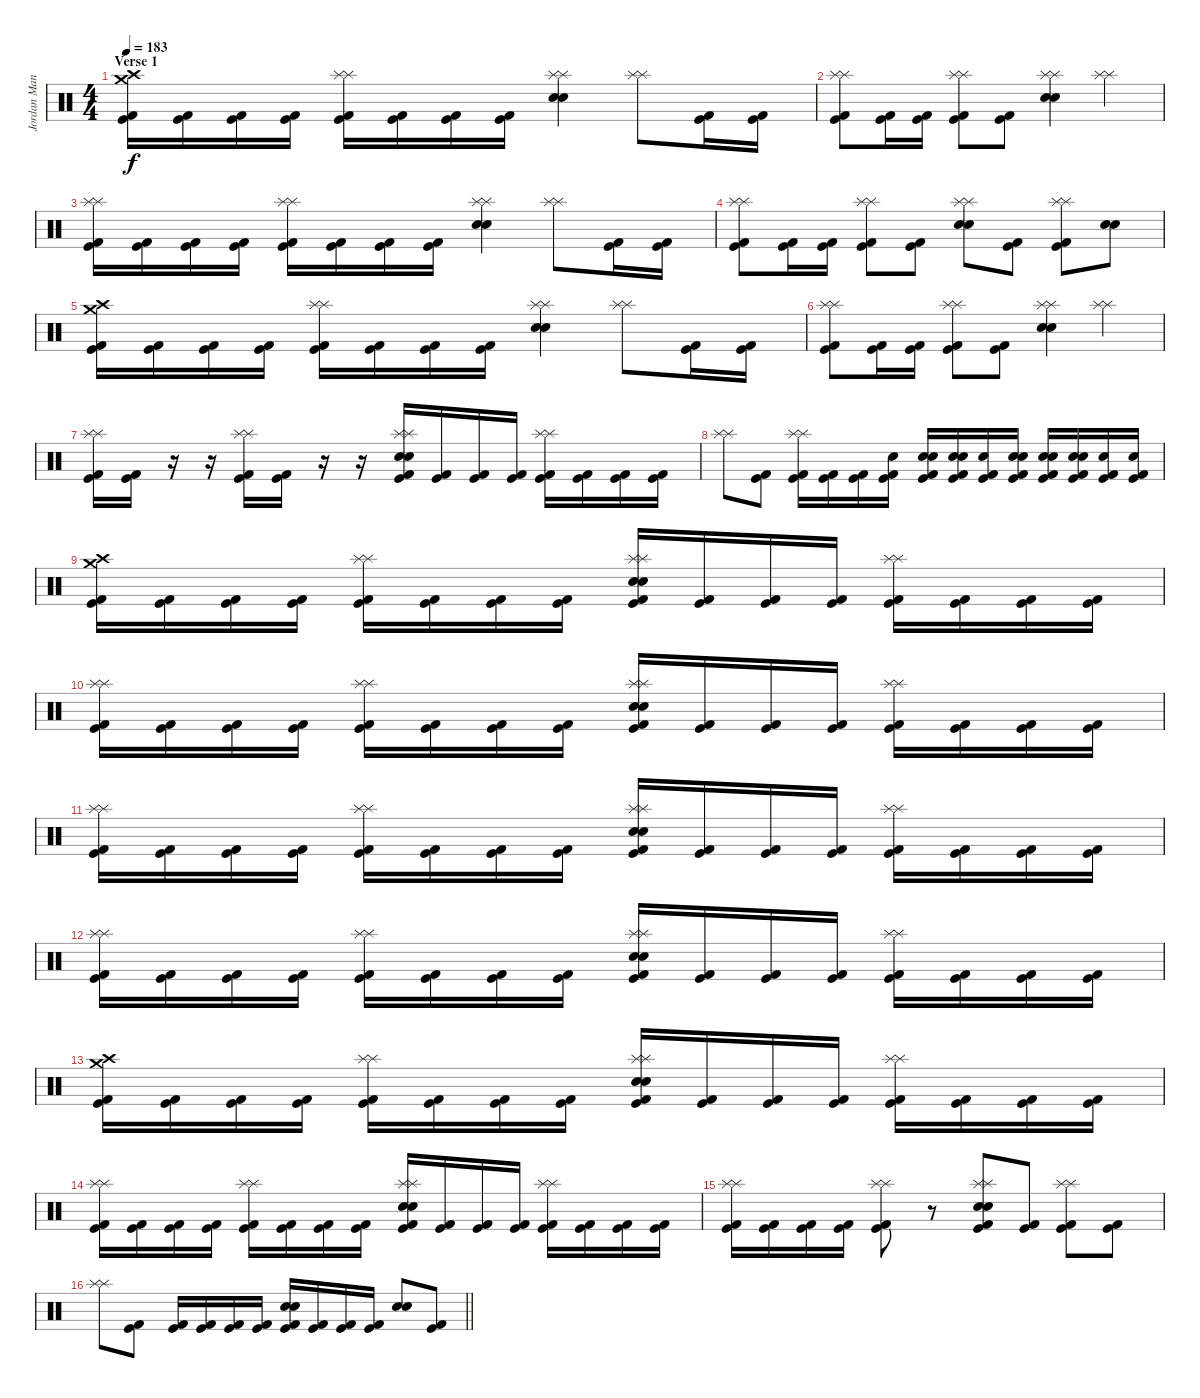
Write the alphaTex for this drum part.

\track ("Jordan Mancino" "Jordan Man") {instrument percussion}
\staff {score}
\articulation defaults
\ts (4 4)
\section ("" "Verse 1")
\tempo 183
\clef neutral
\ks c
("Crash medium (hit)" "Crash high (hit)" "Kick (hit)" "Kick (hit) 2").16{dy f} ("Kick (hit)" "Kick (hit) 2").16 ("Kick (hit)" "Kick (hit) 2").16 ("Kick (hit)" "Kick (hit) 2").16 ("Splash (hit)" "Splash (hit)" "Kick (hit)" "Kick (hit) 2").16 ("Kick (hit)" "Kick (hit) 2").16 ("Kick (hit)" "Kick (hit) 2").16 ("Kick (hit)" "Kick (hit) 2").16 ("Splash (hit)" "Splash (hit)" "Electric Snare (hit)" "Snare (hit) 2").4 ("Splash (hit)" "Splash (hit)").8 ("Kick (hit)" "Kick (hit) 2").16 ("Kick (hit)" "Kick (hit) 2").16 |
("Splash (hit)" "Splash (hit)" "Kick (hit)" "Kick (hit) 2").8 ("Kick (hit)" "Kick (hit) 2").16 ("Kick (hit)" "Kick (hit) 2").16 ("Splash (hit)" "Splash (hit)" "Kick (hit)" "Kick (hit) 2").8 ("Kick (hit)" "Kick (hit) 2").8 ("Splash (hit)" "Splash (hit)" "Electric Snare (hit)" "Snare (hit) 2").4 ("Splash (hit)" "Splash (hit)").4 |
("Splash (hit)" "Splash (hit)" "Kick (hit)" "Kick (hit) 2").16 ("Kick (hit)" "Kick (hit) 2").16 ("Kick (hit)" "Kick (hit) 2").16 ("Kick (hit)" "Kick (hit) 2").16 ("Splash (hit)" "Splash (hit)" "Kick (hit)" "Kick (hit) 2").16 ("Kick (hit)" "Kick (hit) 2").16 ("Kick (hit)" "Kick (hit) 2").16 ("Kick (hit)" "Kick (hit) 2").16 ("Splash (hit)" "Splash (hit)" "Electric Snare (hit)" "Snare (hit) 2").4 ("Splash (hit)" "Splash (hit)").8 ("Kick (hit)" "Kick (hit) 2").16 ("Kick (hit)" "Kick (hit) 2").16 |
("Splash (hit)" "Splash (hit)" "Kick (hit)" "Kick (hit) 2").8 ("Kick (hit)" "Kick (hit) 2").16 ("Kick (hit)" "Kick (hit) 2").16 ("Splash (hit)" "Splash (hit)" "Kick (hit)" "Kick (hit) 2").8 ("Kick (hit)" "Kick (hit) 2").8 ("Splash (hit)" "Splash (hit)" "Electric Snare (hit)" "Snare (hit) 2").8 ("Kick (hit)" "Kick (hit) 2").8 ("Splash (hit)" "Splash (hit)" "Kick (hit)" "Kick (hit) 2").8 ("Electric Snare (hit)" "Snare (hit) 2").8 |
("Crash medium (hit)" "Crash high (hit)" "Kick (hit)" "Kick (hit) 2").16 ("Kick (hit)" "Kick (hit) 2").16 ("Kick (hit)" "Kick (hit) 2").16 ("Kick (hit)" "Kick (hit) 2").16 ("Splash (hit)" "Splash (hit)" "Kick (hit)" "Kick (hit) 2").16 ("Kick (hit)" "Kick (hit) 2").16 ("Kick (hit)" "Kick (hit) 2").16 ("Kick (hit)" "Kick (hit) 2").16 ("Splash (hit)" "Splash (hit)" "Electric Snare (hit)" "Snare (hit) 2").4 ("Splash (hit)" "Splash (hit)").8 ("Kick (hit)" "Kick (hit) 2").16 ("Kick (hit)" "Kick (hit) 2").16 |
("Splash (hit)" "Splash (hit)" "Kick (hit)" "Kick (hit) 2").8 ("Kick (hit)" "Kick (hit) 2").16 ("Kick (hit)" "Kick (hit) 2").16 ("Splash (hit)" "Splash (hit)" "Kick (hit)" "Kick (hit) 2").8 ("Kick (hit)" "Kick (hit) 2").8 ("Splash (hit)" "Splash (hit)" "Electric Snare (hit)" "Snare (hit) 2").4 ("Splash (hit)" "Splash (hit)").4 |
("Splash (hit)" "Splash (hit)" "Kick (hit)" "Kick (hit) 2").16 ("Kick (hit)" "Kick (hit) 2").16 r.16 r.16 ("Splash (hit)" "Splash (hit)" "Kick (hit)" "Kick (hit) 2").16 ("Kick (hit)" "Kick (hit) 2").16 r.16 r.16 ("Splash (hit)" "Splash (hit)" "Electric Snare (hit)" "Snare (hit) 2" "Kick (hit)" "Kick (hit) 2").16 ("Kick (hit)" "Kick (hit) 2").16 ("Kick (hit)" "Kick (hit) 2").16 ("Kick (hit)" "Kick (hit) 2").16 ("Splash (hit)" "Splash (hit)" "Kick (hit)" "Kick (hit) 2").16 ("Kick (hit)" "Kick (hit) 2").16 ("Kick (hit)" "Kick (hit) 2").16 ("Kick (hit)" "Kick (hit) 2").16 |
("Splash (hit)" "Splash (hit)").8 ("Kick (hit)" "Kick (hit) 2").8 ("Splash (hit)" "Splash (hit)" "Kick (hit)" "Kick (hit) 2").16 ("Kick (hit)" "Kick (hit) 2").16 ("Kick (hit)" "Kick (hit) 2").16 ("Snare (hit) 2" "Kick (hit)" "Kick (hit) 2").16 ("Electric Snare (hit)" "Snare (hit) 2" "Kick (hit)" "Kick (hit) 2").16 ("Electric Snare (hit)" "Snare (hit) 2" "Kick (hit)" "Kick (hit) 2").16 ("Snare (hit) 2" "Kick (hit)" "Kick (hit) 2").16 ("Electric Snare (hit)" "Snare (hit) 2" "Kick (hit)" "Kick (hit) 2").16 ("Electric Snare (hit)" "Snare (hit) 2" "Kick (hit)" "Kick (hit) 2").16 ("Electric Snare (hit)" "Snare (hit) 2" "Kick (hit)" "Kick (hit) 2").16 ("Snare (hit) 2" "Kick (hit)" "Kick (hit) 2").16 ("Snare (hit) 2" "Kick (hit)" "Kick (hit) 2").16 |
("Crash medium (hit)" "Crash high (hit)" "Kick (hit)" "Kick (hit) 2").16 ("Kick (hit)" "Kick (hit) 2").16 ("Kick (hit)" "Kick (hit) 2").16 ("Kick (hit)" "Kick (hit) 2").16 ("Splash (hit)" "Splash (hit)" "Kick (hit)" "Kick (hit) 2").16 ("Kick (hit)" "Kick (hit) 2").16 ("Kick (hit)" "Kick (hit) 2").16 ("Kick (hit)" "Kick (hit) 2").16 ("Splash (hit)" "Splash (hit)" "Electric Snare (hit)" "Snare (hit) 2" "Kick (hit)" "Kick (hit) 2").16 ("Kick (hit)" "Kick (hit) 2").16 ("Kick (hit)" "Kick (hit) 2").16 ("Kick (hit)" "Kick (hit) 2").16 ("Splash (hit)" "Splash (hit)" "Kick (hit)" "Kick (hit) 2").16 ("Kick (hit)" "Kick (hit) 2").16 ("Kick (hit)" "Kick (hit) 2").16 ("Kick (hit)" "Kick (hit) 2").16 |
("Splash (hit)" "Splash (hit)" "Kick (hit)" "Kick (hit) 2").16 ("Kick (hit)" "Kick (hit) 2").16 ("Kick (hit)" "Kick (hit) 2").16 ("Kick (hit)" "Kick (hit) 2").16 ("Splash (hit)" "Splash (hit)" "Kick (hit)" "Kick (hit) 2").16 ("Kick (hit)" "Kick (hit) 2").16 ("Kick (hit)" "Kick (hit) 2").16 ("Kick (hit)" "Kick (hit) 2").16 ("Splash (hit)" "Splash (hit)" "Electric Snare (hit)" "Snare (hit) 2" "Kick (hit)" "Kick (hit) 2").16 ("Kick (hit)" "Kick (hit) 2").16 ("Kick (hit)" "Kick (hit) 2").16 ("Kick (hit)" "Kick (hit) 2").16 ("Splash (hit)" "Splash (hit)" "Kick (hit)" "Kick (hit) 2").16 ("Kick (hit)" "Kick (hit) 2").16 ("Kick (hit)" "Kick (hit) 2").16 ("Kick (hit)" "Kick (hit) 2").16 |
("Splash (hit)" "Splash (hit)" "Kick (hit)" "Kick (hit) 2").16 ("Kick (hit)" "Kick (hit) 2").16 ("Kick (hit)" "Kick (hit) 2").16 ("Kick (hit)" "Kick (hit) 2").16 ("Splash (hit)" "Splash (hit)" "Kick (hit)" "Kick (hit) 2").16 ("Kick (hit)" "Kick (hit) 2").16 ("Kick (hit)" "Kick (hit) 2").16 ("Kick (hit)" "Kick (hit) 2").16 ("Splash (hit)" "Splash (hit)" "Electric Snare (hit)" "Snare (hit) 2" "Kick (hit)" "Kick (hit) 2").16 ("Kick (hit)" "Kick (hit) 2").16 ("Kick (hit)" "Kick (hit) 2").16 ("Kick (hit)" "Kick (hit) 2").16 ("Splash (hit)" "Splash (hit)" "Kick (hit)" "Kick (hit) 2").16 ("Kick (hit)" "Kick (hit) 2").16 ("Kick (hit)" "Kick (hit) 2").16 ("Kick (hit)" "Kick (hit) 2").16 |
("Splash (hit)" "Splash (hit)" "Kick (hit)" "Kick (hit) 2").16 ("Kick (hit)" "Kick (hit) 2").16 ("Kick (hit)" "Kick (hit) 2").16 ("Kick (hit)" "Kick (hit) 2").16 ("Splash (hit)" "Splash (hit)" "Kick (hit)" "Kick (hit) 2").16 ("Kick (hit)" "Kick (hit) 2").16 ("Kick (hit)" "Kick (hit) 2").16 ("Kick (hit)" "Kick (hit) 2").16 ("Splash (hit)" "Splash (hit)" "Electric Snare (hit)" "Snare (hit) 2" "Kick (hit)" "Kick (hit) 2").16 ("Kick (hit)" "Kick (hit) 2").16 ("Kick (hit)" "Kick (hit) 2").16 ("Kick (hit)" "Kick (hit) 2").16 ("Splash (hit)" "Splash (hit)" "Kick (hit)" "Kick (hit) 2").16 ("Kick (hit)" "Kick (hit) 2").16 ("Kick (hit)" "Kick (hit) 2").16 ("Kick (hit)" "Kick (hit) 2").16 |
("Crash medium (hit)" "Crash high (hit)" "Kick (hit)" "Kick (hit) 2").16 ("Kick (hit)" "Kick (hit) 2").16 ("Kick (hit)" "Kick (hit) 2").16 ("Kick (hit)" "Kick (hit) 2").16 ("Splash (hit)" "Splash (hit)" "Kick (hit)" "Kick (hit) 2").16 ("Kick (hit)" "Kick (hit) 2").16 ("Kick (hit)" "Kick (hit) 2").16 ("Kick (hit)" "Kick (hit) 2").16 ("Splash (hit)" "Splash (hit)" "Electric Snare (hit)" "Snare (hit) 2" "Kick (hit)" "Kick (hit) 2").16 ("Kick (hit)" "Kick (hit) 2").16 ("Kick (hit)" "Kick (hit) 2").16 ("Kick (hit)" "Kick (hit) 2").16 ("Splash (hit)" "Splash (hit)" "Kick (hit)" "Kick (hit) 2").16 ("Kick (hit)" "Kick (hit) 2").16 ("Kick (hit)" "Kick (hit) 2").16 ("Kick (hit)" "Kick (hit) 2").16 |
("Splash (hit)" "Splash (hit)" "Kick (hit)" "Kick (hit) 2").16 ("Kick (hit)" "Kick (hit) 2").16 ("Kick (hit)" "Kick (hit) 2").16 ("Kick (hit)" "Kick (hit) 2").16 ("Splash (hit)" "Splash (hit)" "Kick (hit)" "Kick (hit) 2").16 ("Kick (hit)" "Kick (hit) 2").16 ("Kick (hit)" "Kick (hit) 2").16 ("Kick (hit)" "Kick (hit) 2").16 ("Splash (hit)" "Splash (hit)" "Electric Snare (hit)" "Snare (hit) 2" "Kick (hit)" "Kick (hit) 2").16 ("Kick (hit)" "Kick (hit) 2").16 ("Kick (hit)" "Kick (hit) 2").16 ("Kick (hit)" "Kick (hit) 2").16 ("Splash (hit)" "Splash (hit)" "Kick (hit)" "Kick (hit) 2").16 ("Kick (hit)" "Kick (hit) 2").16 ("Kick (hit)" "Kick (hit) 2").16 ("Kick (hit)" "Kick (hit) 2").16 |
("Splash (hit)" "Splash (hit)" "Kick (hit)" "Kick (hit) 2").16 ("Kick (hit)" "Kick (hit) 2").16 ("Kick (hit)" "Kick (hit) 2").16 ("Kick (hit)" "Kick (hit) 2").16 ("Splash (hit)" "Splash (hit)" "Kick (hit)" "Kick (hit) 2").8 r.8 ("Splash (hit)" "Splash (hit)" "Electric Snare (hit)" "Snare (hit) 2" "Kick (hit)" "Kick (hit) 2").8 ("Kick (hit)" "Kick (hit) 2").8 ("Splash (hit)" "Splash (hit)" "Kick (hit)" "Kick (hit) 2").8 ("Kick (hit)" "Kick (hit) 2").8 |
\barLineRight lightlight
("Splash (hit)" "Splash (hit)").8 ("Kick (hit)" "Kick (hit) 2").8 ("Kick (hit)" "Kick (hit) 2").16 ("Kick (hit)" "Kick (hit) 2").16 ("Kick (hit)" "Kick (hit) 2").16 ("Kick (hit)" "Kick (hit) 2").16 ("Electric Snare (hit)" "Snare (hit) 2" "Kick (hit)" "Kick (hit) 2").16 ("Kick (hit)" "Kick (hit) 2").16 ("Kick (hit)" "Kick (hit) 2").16 ("Kick (hit)" "Kick (hit) 2").16 ("Electric Snare (hit)" "Snare (hit) 2").8 ("Kick (hit)" "Kick (hit) 2").8
